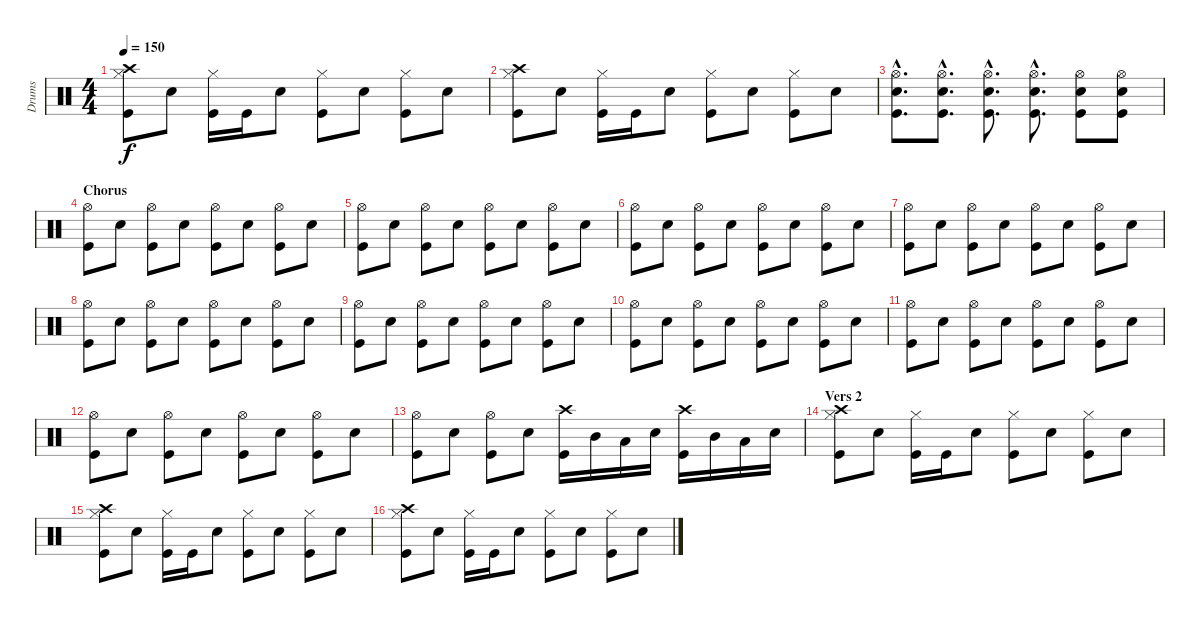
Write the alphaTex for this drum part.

\track ("Drums" "Drums") {instrument percussion}
\staff {score}
\articulation defaults
\ts (4 4)
\tempo 150
\clef neutral
\ks c
("Hi-Hat (closed)" "Crash high (hit)" "Kick (hit)").8{dy f} "Electric Snare (hit)".8 ("Hi-Hat (closed)" "Kick (hit)").16 "Kick (hit)".16 "Electric Snare (hit)".8 ("Hi-Hat (closed)" "Kick (hit)").8 "Electric Snare (hit)".8 ("Hi-Hat (closed)" "Kick (hit)").8 "Electric Snare (hit)".8 |
("Hi-Hat (closed)" "Crash high (hit)" "Kick (hit)").8 "Electric Snare (hit)".8 ("Hi-Hat (closed)" "Kick (hit)").16 "Kick (hit)".16 "Electric Snare (hit)".8 ("Hi-Hat (closed)" "Kick (hit)").8 "Electric Snare (hit)".8 ("Hi-Hat (closed)" "Kick (hit)").8 "Electric Snare (hit)".8 |
("Electric Snare (hit)"{hac} "Hi-Hat (open)"{hac} "Kick (hit)"{hac}).8{d} ("Electric Snare (hit)"{hac} "Hi-Hat (open)"{hac} "Kick (hit)"{hac}).8{d} ("Electric Snare (hit)"{hac} "Hi-Hat (open)"{hac} "Kick (hit)"{hac}).8{d} ("Electric Snare (hit)"{hac} "Hi-Hat (open)"{hac} "Kick (hit)"{hac}).8{d} ("Electric Snare (hit)" "Hi-Hat (open)" "Kick (hit)").8 ("Electric Snare (hit)" "Hi-Hat (open)" "Kick (hit)").8 |
\section ("" "Chorus")
("Hi-Hat (open)" "Kick (hit)").8 "Electric Snare (hit)".8 ("Hi-Hat (open)" "Kick (hit)").8 "Electric Snare (hit)".8 ("Hi-Hat (open)" "Kick (hit)").8 "Electric Snare (hit)".8 ("Hi-Hat (open)" "Kick (hit)").8 "Electric Snare (hit)".8 |
("Hi-Hat (open)" "Kick (hit)").8 "Electric Snare (hit)".8 ("Hi-Hat (open)" "Kick (hit)").8 "Electric Snare (hit)".8 ("Hi-Hat (open)" "Kick (hit)").8 "Electric Snare (hit)".8 ("Hi-Hat (open)" "Kick (hit)").8 "Electric Snare (hit)".8 |
("Hi-Hat (open)" "Kick (hit)").8 "Electric Snare (hit)".8 ("Hi-Hat (open)" "Kick (hit)").8 "Electric Snare (hit)".8 ("Hi-Hat (open)" "Kick (hit)").8 "Electric Snare (hit)".8 ("Hi-Hat (open)" "Kick (hit)").8 "Electric Snare (hit)".8 |
("Hi-Hat (open)" "Kick (hit)").8 "Electric Snare (hit)".8 ("Hi-Hat (open)" "Kick (hit)").8 "Electric Snare (hit)".8 ("Hi-Hat (open)" "Kick (hit)").8 "Electric Snare (hit)".8 ("Hi-Hat (open)" "Kick (hit)").8 "Electric Snare (hit)".8 |
("Hi-Hat (open)" "Kick (hit)").8 "Electric Snare (hit)".8 ("Hi-Hat (open)" "Kick (hit)").8 "Electric Snare (hit)".8 ("Hi-Hat (open)" "Kick (hit)").8 "Electric Snare (hit)".8 ("Hi-Hat (open)" "Kick (hit)").8 "Electric Snare (hit)".8 |
("Hi-Hat (open)" "Kick (hit)").8 "Electric Snare (hit)".8 ("Hi-Hat (open)" "Kick (hit)").8 "Electric Snare (hit)".8 ("Hi-Hat (open)" "Kick (hit)").8 "Electric Snare (hit)".8 ("Hi-Hat (open)" "Kick (hit)").8 "Electric Snare (hit)".8 |
("Hi-Hat (open)" "Kick (hit)").8 "Electric Snare (hit)".8 ("Hi-Hat (open)" "Kick (hit)").8 "Electric Snare (hit)".8 ("Hi-Hat (open)" "Kick (hit)").8 "Electric Snare (hit)".8 ("Hi-Hat (open)" "Kick (hit)").8 "Electric Snare (hit)".8 |
("Hi-Hat (open)" "Kick (hit)").8 "Electric Snare (hit)".8 ("Hi-Hat (open)" "Kick (hit)").8 "Electric Snare (hit)".8 ("Hi-Hat (open)" "Kick (hit)").8 "Electric Snare (hit)".8 ("Hi-Hat (open)" "Kick (hit)").8 "Electric Snare (hit)".8 |
("Hi-Hat (open)" "Kick (hit)").8 "Electric Snare (hit)".8 ("Hi-Hat (open)" "Kick (hit)").8 "Electric Snare (hit)".8 ("Hi-Hat (open)" "Kick (hit)").8 "Electric Snare (hit)".8 ("Hi-Hat (open)" "Kick (hit)").8 "Electric Snare (hit)".8 |
("Hi-Hat (open)" "Kick (hit)").8 "Electric Snare (hit)".8 ("Hi-Hat (open)" "Kick (hit)").8 "Electric Snare (hit)".8 ("Crash high (hit)" "Kick (hit)").16 "Mid Tom (hit)".16 "Low Tom (hit)".16 "Electric Snare (hit)".16 ("Crash high (hit)" "Kick (hit)").16 "Mid Tom (hit)".16 "Low Tom (hit)".16 "Electric Snare (hit)".16 |
\section ("" "Vers 2")
("Hi-Hat (closed)" "Crash high (hit)" "Kick (hit)").8 "Electric Snare (hit)".8 ("Hi-Hat (closed)" "Kick (hit)").16 "Kick (hit)".16 "Electric Snare (hit)".8 ("Hi-Hat (closed)" "Kick (hit)").8 "Electric Snare (hit)".8 ("Hi-Hat (closed)" "Kick (hit)").8 "Electric Snare (hit)".8 |
("Hi-Hat (closed)" "Crash high (hit)" "Kick (hit)").8 "Electric Snare (hit)".8 ("Hi-Hat (closed)" "Kick (hit)").16 "Kick (hit)".16 "Electric Snare (hit)".8 ("Hi-Hat (closed)" "Kick (hit)").8 "Electric Snare (hit)".8 ("Hi-Hat (closed)" "Kick (hit)").8 "Electric Snare (hit)".8 |
("Hi-Hat (closed)" "Crash high (hit)" "Kick (hit)").8 "Electric Snare (hit)".8 ("Hi-Hat (closed)" "Kick (hit)").16 "Kick (hit)".16 "Electric Snare (hit)".8 ("Hi-Hat (closed)" "Kick (hit)").8 "Electric Snare (hit)".8 ("Hi-Hat (closed)" "Kick (hit)").8 "Electric Snare (hit)".8
